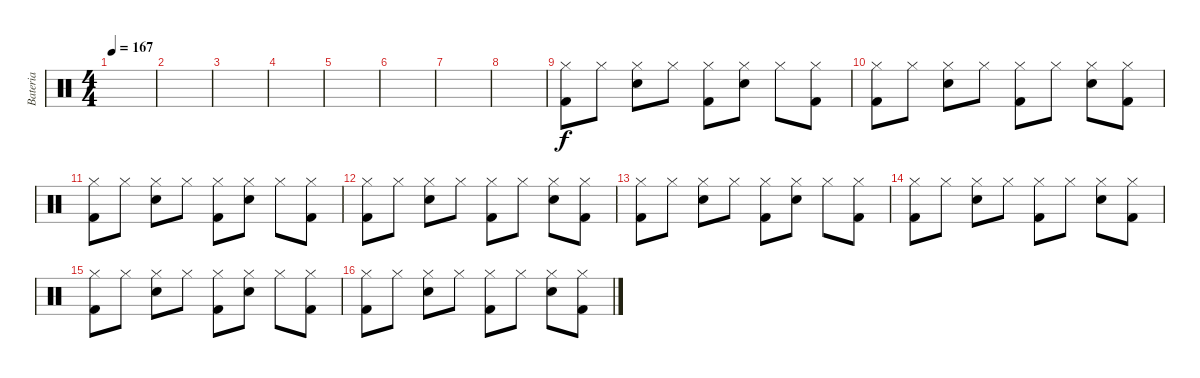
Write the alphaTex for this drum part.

\track ("Bateria" "Bateria") {instrument percussion}
\staff {score}
\articulation defaults
\ts (4 4)
\tempo 167
\clef neutral
\ks c
|
|
|
|
|
|
|
|
("Kick (hit) 2" "Hi-Hat (closed)").8 "Hi-Hat (closed)".8 ("Snare (hit) 2" "Hi-Hat (closed)").8 "Hi-Hat (closed)".8 ("Kick (hit) 2" "Hi-Hat (closed)").8 ("Snare (hit) 2" "Hi-Hat (closed)").8 "Hi-Hat (closed)".8 ("Kick (hit) 2" "Hi-Hat (closed)").8 |
("Kick (hit) 2" "Hi-Hat (closed)").8 "Hi-Hat (closed)".8 ("Snare (hit) 2" "Hi-Hat (closed)").8 "Hi-Hat (closed)".8 ("Kick (hit) 2" "Hi-Hat (closed)").8 "Hi-Hat (closed)".8 ("Snare (hit) 2" "Hi-Hat (closed)").8 ("Kick (hit) 2" "Hi-Hat (closed)").8 |
("Kick (hit) 2" "Hi-Hat (closed)").8 "Hi-Hat (closed)".8 ("Snare (hit) 2" "Hi-Hat (closed)").8 "Hi-Hat (closed)".8 ("Kick (hit) 2" "Hi-Hat (closed)").8 ("Snare (hit) 2" "Hi-Hat (closed)").8 "Hi-Hat (closed)".8 ("Kick (hit) 2" "Hi-Hat (closed)").8 |
("Kick (hit) 2" "Hi-Hat (closed)").8 "Hi-Hat (closed)".8 ("Snare (hit) 2" "Hi-Hat (closed)").8 "Hi-Hat (closed)".8 ("Kick (hit) 2" "Hi-Hat (closed)").8 "Hi-Hat (closed)".8 ("Snare (hit) 2" "Hi-Hat (closed)").8 ("Kick (hit) 2" "Hi-Hat (closed)").8 |
("Kick (hit) 2" "Hi-Hat (closed)").8 "Hi-Hat (closed)".8 ("Snare (hit) 2" "Hi-Hat (closed)").8 "Hi-Hat (closed)".8 ("Kick (hit) 2" "Hi-Hat (closed)").8 ("Snare (hit) 2" "Hi-Hat (closed)").8 "Hi-Hat (closed)".8 ("Kick (hit) 2" "Hi-Hat (closed)").8 |
("Kick (hit) 2" "Hi-Hat (closed)").8 "Hi-Hat (closed)".8 ("Snare (hit) 2" "Hi-Hat (closed)").8 "Hi-Hat (closed)".8 ("Kick (hit) 2" "Hi-Hat (closed)").8 "Hi-Hat (closed)".8 ("Snare (hit) 2" "Hi-Hat (closed)").8 ("Kick (hit) 2" "Hi-Hat (closed)").8 |
("Kick (hit) 2" "Hi-Hat (closed)").8 "Hi-Hat (closed)".8 ("Snare (hit) 2" "Hi-Hat (closed)").8 "Hi-Hat (closed)".8 ("Kick (hit) 2" "Hi-Hat (closed)").8 ("Snare (hit) 2" "Hi-Hat (closed)").8 "Hi-Hat (closed)".8 ("Kick (hit) 2" "Hi-Hat (closed)").8 |
("Kick (hit) 2" "Hi-Hat (closed)").8 "Hi-Hat (closed)".8 ("Snare (hit) 2" "Hi-Hat (closed)").8 "Hi-Hat (closed)".8 ("Kick (hit) 2" "Hi-Hat (closed)").8 "Hi-Hat (closed)".8 ("Snare (hit) 2" "Hi-Hat (closed)").8 ("Kick (hit) 2" "Hi-Hat (closed)").8
